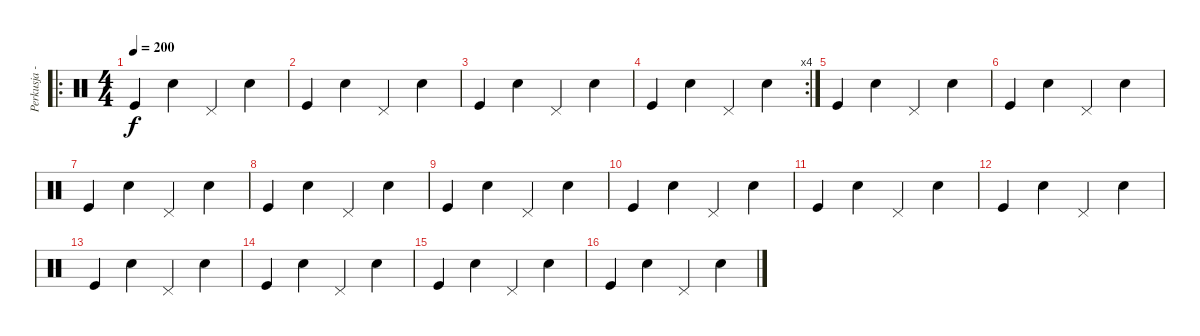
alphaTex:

\track ("Perkusja - J. Olejarz" "Perkusja -") {instrument percussion}
\staff {score}
\articulation defaults
\ro
\ts (4 4)
\tempo 200
\clef neutral
\ks c "Kick (hit)".4{dy f} "Electric Snare (hit)".4 "Pedal Hi-Hat (hit)".4 "Electric Snare (hit)".4
|
"Kick (hit)".4 "Electric Snare (hit)".4 "Pedal Hi-Hat (hit)".4 "Electric Snare (hit)".4 |
"Kick (hit)".4 "Electric Snare (hit)".4 "Pedal Hi-Hat (hit)".4 "Electric Snare (hit)".4 |
\rc 4 "Kick (hit)".4 "Electric Snare (hit)".4 "Pedal Hi-Hat (hit)".4 "Electric Snare (hit)".4
|
"Kick (hit)".4 "Electric Snare (hit)".4 "Pedal Hi-Hat (hit)".4 "Electric Snare (hit)".4 |
"Kick (hit)".4 "Electric Snare (hit)".4 "Pedal Hi-Hat (hit)".4 "Electric Snare (hit)".4 |
"Kick (hit)".4 "Electric Snare (hit)".4 "Pedal Hi-Hat (hit)".4 "Electric Snare (hit)".4 |
"Kick (hit)".4 "Electric Snare (hit)".4 "Pedal Hi-Hat (hit)".4 "Electric Snare (hit)".4 |
"Kick (hit)".4 "Electric Snare (hit)".4 "Pedal Hi-Hat (hit)".4 "Electric Snare (hit)".4 |
"Kick (hit)".4 "Electric Snare (hit)".4 "Pedal Hi-Hat (hit)".4 "Electric Snare (hit)".4 |
"Kick (hit)".4 "Electric Snare (hit)".4 "Pedal Hi-Hat (hit)".4 "Electric Snare (hit)".4 |
"Kick (hit)".4 "Electric Snare (hit)".4 "Pedal Hi-Hat (hit)".4 "Electric Snare (hit)".4 |
"Kick (hit)".4 "Electric Snare (hit)".4 "Pedal Hi-Hat (hit)".4 "Electric Snare (hit)".4 |
"Kick (hit)".4 "Electric Snare (hit)".4 "Pedal Hi-Hat (hit)".4 "Electric Snare (hit)".4 |
"Kick (hit)".4 "Electric Snare (hit)".4 "Pedal Hi-Hat (hit)".4 "Electric Snare (hit)".4 |
"Kick (hit)".4 "Electric Snare (hit)".4 "Pedal Hi-Hat (hit)".4 "Electric Snare (hit)".4
